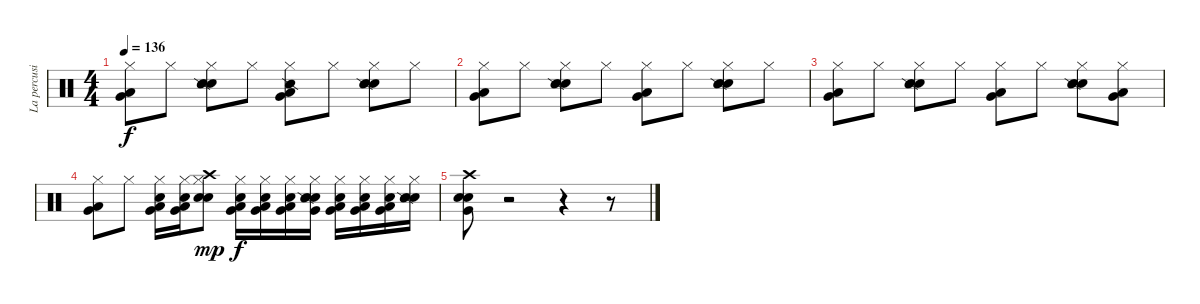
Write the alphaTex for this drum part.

\track ("La percusión" "La percusi") {instrument percussion}
\staff {score}
\articulation defaults
\ts (4 4)
\tempo 136
\clef neutral
\ks c
("Hi-Hat (closed)" "Low Floor Tom (hit)" "Very Low Tom (hit)").8{dy f} "Hi-Hat (closed)".8 ("Hi-Hat (closed)" "Snare (hit) 2" "Snare (hit) 2" "Snare (side stick) 2").8 "Hi-Hat (closed)".8 ("Hi-Hat (closed)" "Low Floor Tom (hit)" "Very Low Tom (hit)" "Snare (side stick) 2").8 "Hi-Hat (closed)".8 ("Hi-Hat (closed)" "Snare (hit) 2" "Snare (hit) 2" "Snare (side stick) 2").8 "Hi-Hat (closed)".8 |
("Hi-Hat (closed)" "Low Floor Tom (hit)" "Very Low Tom (hit)").8 "Hi-Hat (closed)".8 ("Hi-Hat (closed)" "Snare (hit) 2" "Snare (hit) 2" "Snare (side stick) 2").8 "Hi-Hat (closed)".8 ("Hi-Hat (closed)" "Low Floor Tom (hit)" "Very Low Tom (hit)").8 "Hi-Hat (closed)".8 ("Hi-Hat (closed)" "Snare (hit) 2" "Snare (hit) 2" "Snare (side stick) 2").8 "Hi-Hat (closed)".8 |
("Hi-Hat (closed)" "Low Floor Tom (hit)" "Very Low Tom (hit)").8 "Hi-Hat (closed)".8 ("Hi-Hat (closed)" "Snare (hit) 2" "Snare (hit) 2" "Snare (side stick) 2").8 "Hi-Hat (closed)".8 ("Hi-Hat (closed)" "Low Floor Tom (hit)" "Very Low Tom (hit)").8 "Hi-Hat (closed)".8 ("Hi-Hat (closed)" "Snare (hit) 2" "Snare (hit) 2" "Snare (side stick) 2").8 ("Hi-Hat (closed)" "Low Floor Tom (hit)" "Very Low Tom (hit)").8 |
("Hi-Hat (closed)" "Low Floor Tom (hit)" "Very Low Tom (hit)").8 "Hi-Hat (closed)".8 ("Hi-Hat (closed)" "Snare (hit) 2" "Very Low Tom (hit)" "Low Floor Tom (hit)").16 ("Hi-Hat (closed)" "Snare (hit) 2" "Very Low Tom (hit)" "Low Floor Tom (hit)").16 ("Hi-Hat (closed)" "Snare (hit) 2" "Snare (hit) 2" "Crash high (hit)").8{dy mp} ("Hi-Hat (closed)" "Low Floor Tom (hit)" "Very Low Tom (hit)" "Snare (hit) 2").16{dy f} ("Hi-Hat (closed)" "Low Floor Tom (hit)" "Very Low Tom (hit)" "Snare (hit) 2").16 ("Hi-Hat (closed)" "Low Floor Tom (hit)" "Very Low Tom (hit)" "Snare (hit) 2").16 ("Hi-Hat (closed)" "Very Low Tom (hit)" "Snare (hit) 2" "Snare (hit) 2" "Snare (side stick) 2").16 ("Hi-Hat (closed)" "Snare (hit) 2" "Low Floor Tom (hit)" "Very Low Tom (hit)").16 ("Hi-Hat (closed)" "Snare (hit) 2" "Low Floor Tom (hit)" "Very Low Tom (hit)").16 ("Hi-Hat (closed)" "Snare (hit) 2" "Low Floor Tom (hit)" "Very Low Tom (hit)").16 ("Hi-Hat (closed)" "Snare (hit) 2" "Snare (hit) 2" "Snare (side stick) 2").16 |
("Crash high (hit)" "Snare (hit) 2" "Snare (hit) 2" "Very Low Tom (hit)").8 r.2 r.4 r.8
